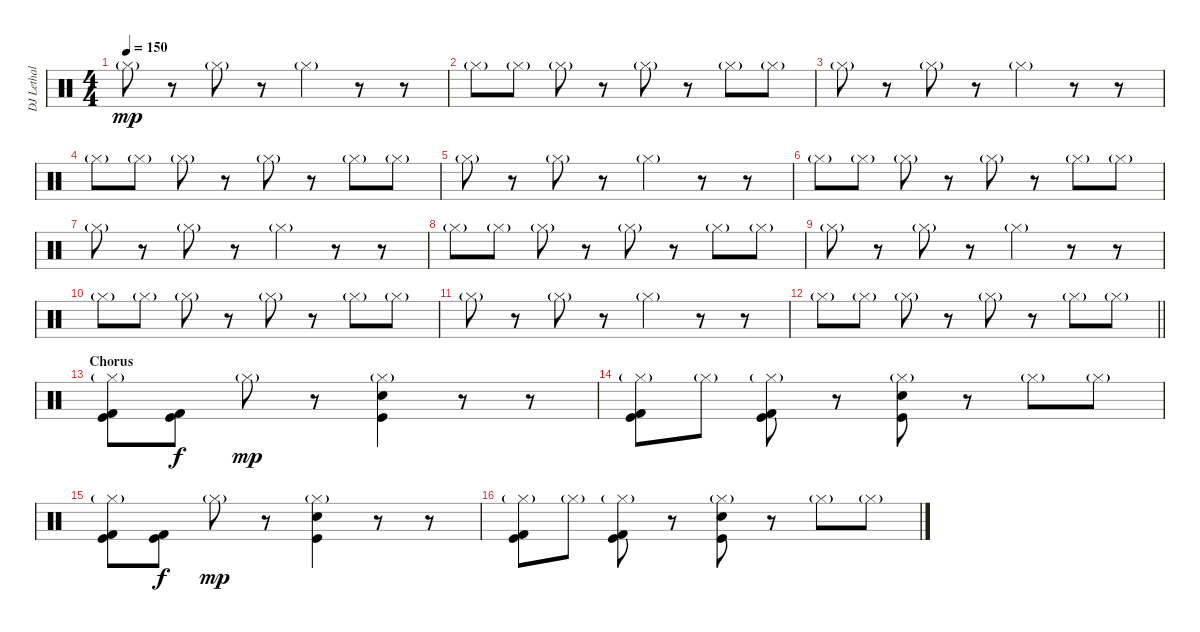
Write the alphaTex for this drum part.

\track ("DJ Lethal (Beats 2)" "DJ Lethal ") {instrument percussion}
\staff {score}
\articulation defaults
\ts (4 4)
\tempo 150
\clef neutral
\ks c "Hi-Hat (closed)"{g}.8{dy mp}
r.8 "Hi-Hat (closed)"{g}.8 r.8 "Hi-Hat (closed)"{g}.4 r.8 r.8 |
"Hi-Hat (closed)"{g}.8 "Hi-Hat (closed)"{g}.8 "Hi-Hat (closed)"{g}.8 r.8 "Hi-Hat (closed)"{g}.8 r.8 "Hi-Hat (closed)"{g}.8 "Hi-Hat (closed)"{g}.8 |
"Hi-Hat (closed)"{g}.8 r.8 "Hi-Hat (closed)"{g}.8 r.8 "Hi-Hat (closed)"{g}.4 r.8 r.8 |
"Hi-Hat (closed)"{g}.8 "Hi-Hat (closed)"{g}.8 "Hi-Hat (closed)"{g}.8 r.8 "Hi-Hat (closed)"{g}.8 r.8 "Hi-Hat (closed)"{g}.8 "Hi-Hat (closed)"{g}.8 |
"Hi-Hat (closed)"{g}.8 r.8 "Hi-Hat (closed)"{g}.8 r.8 "Hi-Hat (closed)"{g}.4 r.8 r.8 |
"Hi-Hat (closed)"{g}.8 "Hi-Hat (closed)"{g}.8 "Hi-Hat (closed)"{g}.8 r.8 "Hi-Hat (closed)"{g}.8 r.8 "Hi-Hat (closed)"{g}.8 "Hi-Hat (closed)"{g}.8 |
"Hi-Hat (closed)"{g}.8 r.8 "Hi-Hat (closed)"{g}.8 r.8 "Hi-Hat (closed)"{g}.4 r.8 r.8 |
"Hi-Hat (closed)"{g}.8 "Hi-Hat (closed)"{g}.8 "Hi-Hat (closed)"{g}.8 r.8 "Hi-Hat (closed)"{g}.8 r.8 "Hi-Hat (closed)"{g}.8 "Hi-Hat (closed)"{g}.8 |
"Hi-Hat (closed)"{g}.8 r.8 "Hi-Hat (closed)"{g}.8 r.8 "Hi-Hat (closed)"{g}.4 r.8 r.8 |
"Hi-Hat (closed)"{g}.8 "Hi-Hat (closed)"{g}.8 "Hi-Hat (closed)"{g}.8 r.8 "Hi-Hat (closed)"{g}.8 r.8 "Hi-Hat (closed)"{g}.8 "Hi-Hat (closed)"{g}.8 |
"Hi-Hat (closed)"{g}.8 r.8 "Hi-Hat (closed)"{g}.8 r.8 "Hi-Hat (closed)"{g}.4 r.8 r.8 |
\barLineRight lightlight "Hi-Hat (closed)"{g}.8 "Hi-Hat (closed)"{g}.8 "Hi-Hat (closed)"{g}.8
r.8 "Hi-Hat (closed)"{g}.8 r.8 "Hi-Hat (closed)"{g}.8 "Hi-Hat (closed)"{g}.8 |
\section ("" "Chorus")
("Hi-Hat (closed)"{g} "Kick (hit) 2" "Kick (hit)").8 ("Kick (hit) 2" "Kick (hit)").8{dy f} "Hi-Hat (closed)"{g}.8{dy mp} r.8 ("Hi-Hat (closed)"{g} "Snare (hit) 2" "Kick (hit)").4 r.8 r.8 |
("Hi-Hat (closed)"{g} "Kick (hit) 2" "Kick (hit)").8 "Hi-Hat (closed)"{g}.8 ("Hi-Hat (closed)"{g} "Kick (hit) 2" "Kick (hit)").8 r.8 ("Hi-Hat (closed)"{g} "Snare (hit) 2" "Kick (hit)").8 r.8 "Hi-Hat (closed)"{g}.8 "Hi-Hat (closed)"{g}.8 |
("Hi-Hat (closed)"{g} "Kick (hit) 2" "Kick (hit)").8 ("Kick (hit) 2" "Kick (hit)").8{dy f} "Hi-Hat (closed)"{g}.8{dy mp} r.8 ("Hi-Hat (closed)"{g} "Snare (hit) 2" "Kick (hit)").4 r.8 r.8 |
("Hi-Hat (closed)"{g} "Kick (hit) 2" "Kick (hit)").8 "Hi-Hat (closed)"{g}.8 ("Hi-Hat (closed)"{g} "Kick (hit) 2" "Kick (hit)").8 r.8 ("Hi-Hat (closed)"{g} "Snare (hit) 2" "Kick (hit)").8 r.8 "Hi-Hat (closed)"{g}.8 "Hi-Hat (closed)"{g}.8
